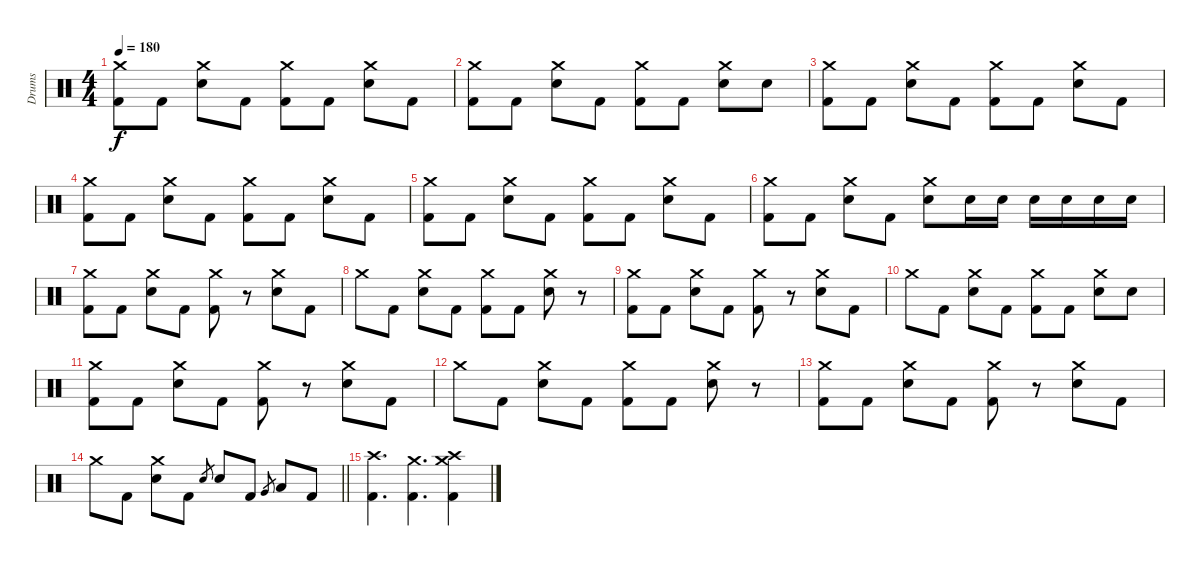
\track ("Drums" "Drums") {instrument percussion}
\staff {score}
\articulation defaults
\ts (4 4)
\tempo 180
\clef neutral
\ks c
("Crash medium (hit)" "Kick (hit) 2").8{dy f} "Kick (hit) 2".8 ("Crash medium (hit)" "Electric Snare (hit)").8 "Kick (hit) 2".8 ("Crash medium (hit)" "Kick (hit) 2").8 "Kick (hit) 2".8 ("Crash medium (hit)" "Electric Snare (hit)").8 "Kick (hit) 2".8 |
("Crash medium (hit)" "Kick (hit) 2").8 "Kick (hit) 2".8 ("Crash medium (hit)" "Electric Snare (hit)").8 "Kick (hit) 2".8 ("Crash medium (hit)" "Kick (hit) 2").8 "Kick (hit) 2".8 ("Crash medium (hit)" "Electric Snare (hit)").8 "Electric Snare (hit)".8 |
("Crash medium (hit)" "Kick (hit) 2").8 "Kick (hit) 2".8 ("Crash medium (hit)" "Electric Snare (hit)").8 "Kick (hit) 2".8 ("Crash medium (hit)" "Kick (hit) 2").8 "Kick (hit) 2".8 ("Crash medium (hit)" "Electric Snare (hit)").8 "Kick (hit) 2".8 |
("Crash medium (hit)" "Kick (hit) 2").8 "Kick (hit) 2".8 ("Crash medium (hit)" "Electric Snare (hit)").8 "Kick (hit) 2".8 ("Crash medium (hit)" "Kick (hit) 2").8 "Kick (hit) 2".8 ("Crash medium (hit)" "Electric Snare (hit)").8 "Kick (hit) 2".8 |
("Crash medium (hit)" "Kick (hit) 2").8 "Kick (hit) 2".8 ("Crash medium (hit)" "Electric Snare (hit)").8 "Kick (hit) 2".8 ("Crash medium (hit)" "Kick (hit) 2").8 "Kick (hit) 2".8 ("Crash medium (hit)" "Electric Snare (hit)").8 "Kick (hit) 2".8 |
("Crash medium (hit)" "Kick (hit) 2").8 "Kick (hit) 2".8 ("Crash medium (hit)" "Electric Snare (hit)").8 "Kick (hit) 2".8 ("Crash medium (hit)" "Electric Snare (hit)").8 "Electric Snare (hit)".16 "Electric Snare (hit)".16 "Electric Snare (hit)".16 "Electric Snare (hit)".16 "Electric Snare (hit)".16 "Electric Snare (hit)".16 |
("Crash medium (hit)" "Kick (hit) 2").8 "Kick (hit) 2".8 ("Crash medium (hit)" "Electric Snare (hit)").8 "Kick (hit) 2".8 ("Crash medium (hit)" "Kick (hit) 2").8 r.8 ("Crash medium (hit)" "Electric Snare (hit)").8 "Kick (hit) 2".8 |
"Crash medium (hit)".8 "Kick (hit) 2".8 ("Crash medium (hit)" "Electric Snare (hit)").8 "Kick (hit) 2".8 ("Crash medium (hit)" "Kick (hit) 2").8 "Kick (hit) 2".8 ("Crash medium (hit)" "Electric Snare (hit)").8 r.8 |
("Crash medium (hit)" "Kick (hit) 2").8 "Kick (hit) 2".8 ("Crash medium (hit)" "Electric Snare (hit)").8 "Kick (hit) 2".8 ("Crash medium (hit)" "Kick (hit) 2").8 r.8 ("Crash medium (hit)" "Electric Snare (hit)").8 "Kick (hit) 2".8 |
"Crash medium (hit)".8 "Kick (hit) 2".8 ("Crash medium (hit)" "Electric Snare (hit)").8 "Kick (hit) 2".8 ("Crash medium (hit)" "Kick (hit) 2").8 "Kick (hit) 2".8 ("Crash medium (hit)" "Electric Snare (hit)").8 "Electric Snare (hit)".8 |
("Crash medium (hit)" "Kick (hit) 2").8 "Kick (hit) 2".8 ("Crash medium (hit)" "Electric Snare (hit)").8 "Kick (hit) 2".8 ("Crash medium (hit)" "Kick (hit) 2").8 r.8 ("Crash medium (hit)" "Electric Snare (hit)").8 "Kick (hit) 2".8 |
"Crash medium (hit)".8 "Kick (hit) 2".8 ("Crash medium (hit)" "Electric Snare (hit)").8 "Kick (hit) 2".8 ("Crash medium (hit)" "Kick (hit) 2").8 "Kick (hit) 2".8 ("Crash medium (hit)" "Electric Snare (hit)").8 r.8 |
("Crash medium (hit)" "Kick (hit) 2").8 "Kick (hit) 2".8 ("Crash medium (hit)" "Electric Snare (hit)").8 "Kick (hit) 2".8 ("Crash medium (hit)" "Kick (hit) 2").8 r.8 ("Crash medium (hit)" "Electric Snare (hit)").8 "Kick (hit) 2".8 |
\barLineRight lightlight "Crash medium (hit)".8 "Kick (hit) 2".8
("Crash medium (hit)" "Electric Snare (hit)").8 "Kick (hit) 2".8 "Electric Snare (hit)".8{gr} "Electric Snare (hit)".8 "Kick (hit) 2".8 "Very Low Tom (hit)".8{gr} "Low Tom (hit)".8 "Kick (hit) 2".8 |
("Crash high (hit)" "Kick (hit) 2").4{d} ("Crash medium (hit)" "Kick (hit) 2").4{d} ("Crash high (hit)" "Crash medium (hit)" "Kick (hit) 2").4
